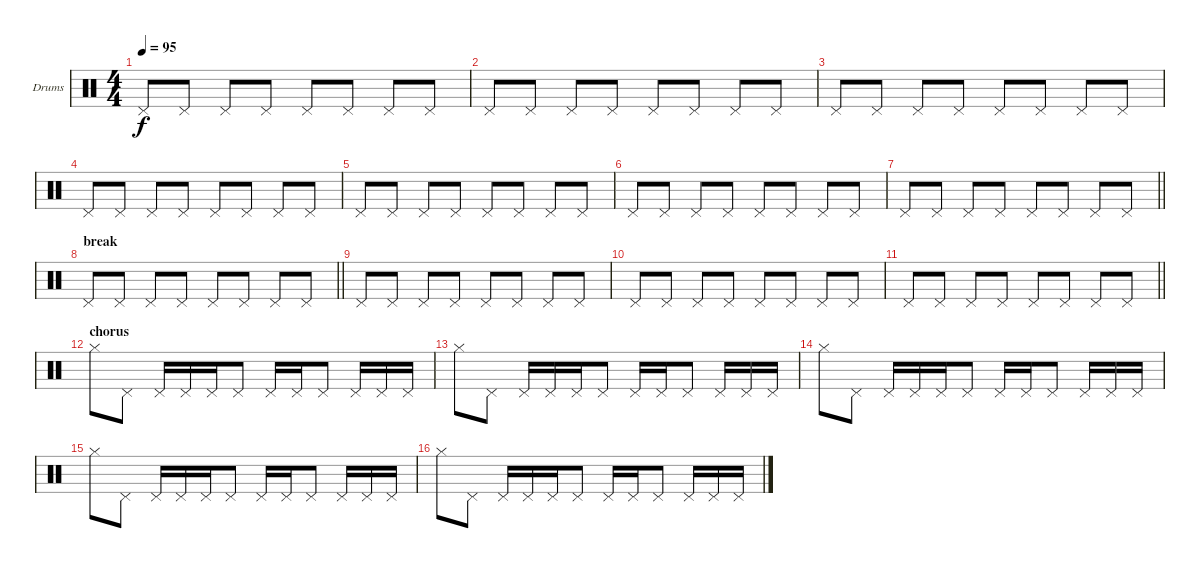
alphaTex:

\bracketExtendMode groupsimilarinstruments
\firstSystemTrackNameOrientation horizontal
\otherSystemsTrackNameOrientation horizontal
\track ("Drumkit" "Drums") {instrument percussion}
\staff {score}
\articulation defaults
\ts (4 4)
\tempo 95
\clef neutral
\ks c "Pedal Hi-Hat (hit)".8{dy f} "Pedal Hi-Hat (hit)".8 "Pedal Hi-Hat (hit)".8 "Pedal Hi-Hat (hit)".8 "Pedal Hi-Hat (hit)".8 "Pedal Hi-Hat (hit)".8 "Pedal Hi-Hat (hit)".8 "Pedal Hi-Hat (hit)".8
|
"Pedal Hi-Hat (hit)".8 "Pedal Hi-Hat (hit)".8 "Pedal Hi-Hat (hit)".8 "Pedal Hi-Hat (hit)".8 "Pedal Hi-Hat (hit)".8 "Pedal Hi-Hat (hit)".8 "Pedal Hi-Hat (hit)".8 "Pedal Hi-Hat (hit)".8 |
"Pedal Hi-Hat (hit)".8 "Pedal Hi-Hat (hit)".8 "Pedal Hi-Hat (hit)".8 "Pedal Hi-Hat (hit)".8 "Pedal Hi-Hat (hit)".8 "Pedal Hi-Hat (hit)".8 "Pedal Hi-Hat (hit)".8 "Pedal Hi-Hat (hit)".8 |
"Pedal Hi-Hat (hit)".8 "Pedal Hi-Hat (hit)".8 "Pedal Hi-Hat (hit)".8 "Pedal Hi-Hat (hit)".8 "Pedal Hi-Hat (hit)".8 "Pedal Hi-Hat (hit)".8 "Pedal Hi-Hat (hit)".8 "Pedal Hi-Hat (hit)".8 |
"Pedal Hi-Hat (hit)".8 "Pedal Hi-Hat (hit)".8 "Pedal Hi-Hat (hit)".8 "Pedal Hi-Hat (hit)".8 "Pedal Hi-Hat (hit)".8 "Pedal Hi-Hat (hit)".8 "Pedal Hi-Hat (hit)".8 "Pedal Hi-Hat (hit)".8 |
"Pedal Hi-Hat (hit)".8 "Pedal Hi-Hat (hit)".8 "Pedal Hi-Hat (hit)".8 "Pedal Hi-Hat (hit)".8 "Pedal Hi-Hat (hit)".8 "Pedal Hi-Hat (hit)".8 "Pedal Hi-Hat (hit)".8 "Pedal Hi-Hat (hit)".8 |
\barLineRight lightlight "Pedal Hi-Hat (hit)".8 "Pedal Hi-Hat (hit)".8 "Pedal Hi-Hat (hit)".8 "Pedal Hi-Hat (hit)".8 "Pedal Hi-Hat (hit)".8 "Pedal Hi-Hat (hit)".8 "Pedal Hi-Hat (hit)".8 "Pedal Hi-Hat (hit)".8
|
\section ("" "break")
\barLineRight lightlight "Pedal Hi-Hat (hit)".8 "Pedal Hi-Hat (hit)".8 "Pedal Hi-Hat (hit)".8 "Pedal Hi-Hat (hit)".8 "Pedal Hi-Hat (hit)".8 "Pedal Hi-Hat (hit)".8 "Pedal Hi-Hat (hit)".8 "Pedal Hi-Hat (hit)".8
|
"Pedal Hi-Hat (hit)".8 "Pedal Hi-Hat (hit)".8 "Pedal Hi-Hat (hit)".8 "Pedal Hi-Hat (hit)".8 "Pedal Hi-Hat (hit)".8 "Pedal Hi-Hat (hit)".8 "Pedal Hi-Hat (hit)".8 "Pedal Hi-Hat (hit)".8 |
"Pedal Hi-Hat (hit)".8 "Pedal Hi-Hat (hit)".8 "Pedal Hi-Hat (hit)".8 "Pedal Hi-Hat (hit)".8 "Pedal Hi-Hat (hit)".8 "Pedal Hi-Hat (hit)".8 "Pedal Hi-Hat (hit)".8 "Pedal Hi-Hat (hit)".8 |
\barLineRight lightlight "Pedal Hi-Hat (hit)".8 "Pedal Hi-Hat (hit)".8 "Pedal Hi-Hat (hit)".8 "Pedal Hi-Hat (hit)".8 "Pedal Hi-Hat (hit)".8 "Pedal Hi-Hat (hit)".8 "Pedal Hi-Hat (hit)".8 "Pedal Hi-Hat (hit)".8
|
\section ("" "chorus")
"Hi-Hat (closed)".8 "Pedal Hi-Hat (hit)".8 "Pedal Hi-Hat (hit)".16 "Pedal Hi-Hat (hit)".16 "Pedal Hi-Hat (hit)".16 "Pedal Hi-Hat (hit)".8 "Pedal Hi-Hat (hit)".16 "Pedal Hi-Hat (hit)".16 "Pedal Hi-Hat (hit)".8 "Pedal Hi-Hat (hit)".16 "Pedal Hi-Hat (hit)".16 "Pedal Hi-Hat (hit)".16 |
"Hi-Hat (closed)".8 "Pedal Hi-Hat (hit)".8 "Pedal Hi-Hat (hit)".16 "Pedal Hi-Hat (hit)".16 "Pedal Hi-Hat (hit)".16 "Pedal Hi-Hat (hit)".8 "Pedal Hi-Hat (hit)".16 "Pedal Hi-Hat (hit)".16 "Pedal Hi-Hat (hit)".8 "Pedal Hi-Hat (hit)".16 "Pedal Hi-Hat (hit)".16 "Pedal Hi-Hat (hit)".16 |
"Hi-Hat (closed)".8 "Pedal Hi-Hat (hit)".8 "Pedal Hi-Hat (hit)".16 "Pedal Hi-Hat (hit)".16 "Pedal Hi-Hat (hit)".16 "Pedal Hi-Hat (hit)".8 "Pedal Hi-Hat (hit)".16 "Pedal Hi-Hat (hit)".16 "Pedal Hi-Hat (hit)".8 "Pedal Hi-Hat (hit)".16 "Pedal Hi-Hat (hit)".16 "Pedal Hi-Hat (hit)".16 |
"Hi-Hat (closed)".8 "Pedal Hi-Hat (hit)".8 "Pedal Hi-Hat (hit)".16 "Pedal Hi-Hat (hit)".16 "Pedal Hi-Hat (hit)".16 "Pedal Hi-Hat (hit)".8 "Pedal Hi-Hat (hit)".16 "Pedal Hi-Hat (hit)".16 "Pedal Hi-Hat (hit)".8 "Pedal Hi-Hat (hit)".16 "Pedal Hi-Hat (hit)".16 "Pedal Hi-Hat (hit)".16 |
"Hi-Hat (closed)".8 "Pedal Hi-Hat (hit)".8 "Pedal Hi-Hat (hit)".16 "Pedal Hi-Hat (hit)".16 "Pedal Hi-Hat (hit)".16 "Pedal Hi-Hat (hit)".8 "Pedal Hi-Hat (hit)".16 "Pedal Hi-Hat (hit)".16 "Pedal Hi-Hat (hit)".8 "Pedal Hi-Hat (hit)".16 "Pedal Hi-Hat (hit)".16 "Pedal Hi-Hat (hit)".16
